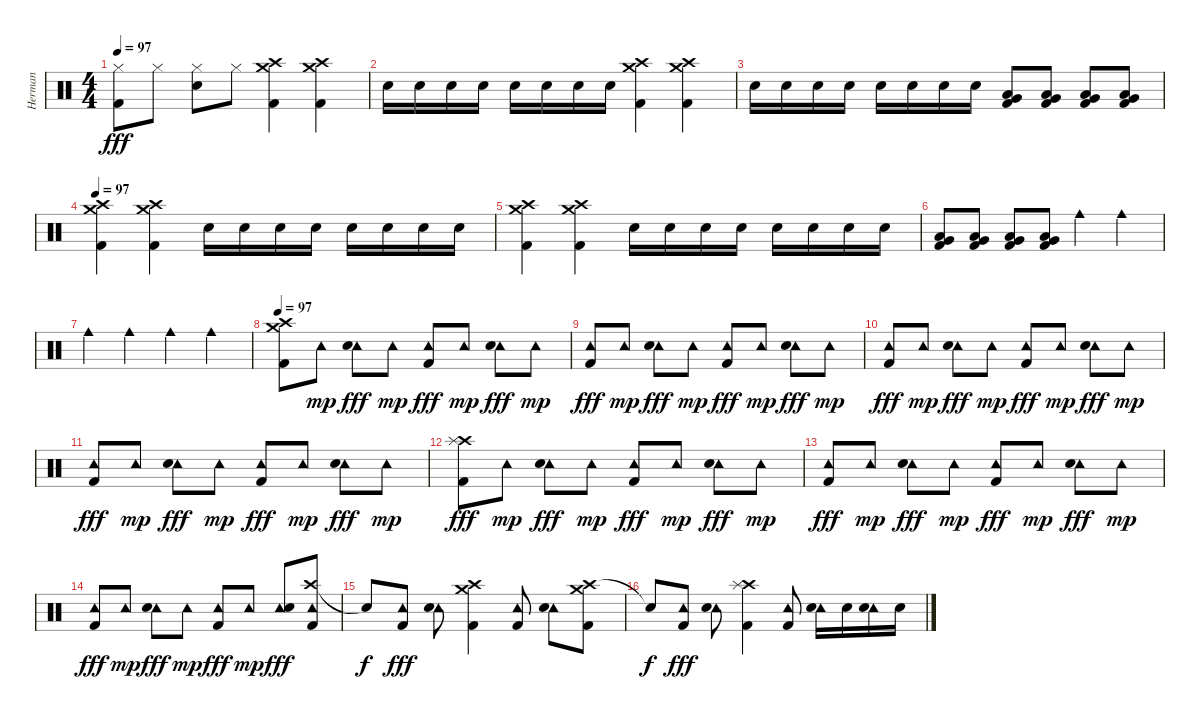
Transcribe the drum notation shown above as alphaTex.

\track ("Herman" "Herman") {instrument percussion}
\staff {score}
\articulation defaults
\ts (4 4)
\tempo 97
\clef neutral
\ks c
("Hi-Hat (closed)" "Kick (hit) 2").8{dy fff} "Hi-Hat (closed)".8 ("Hi-Hat (closed)" "Snare (hit) 2").8 "Hi-Hat (closed)".8 ("Crash high (hit)" "Crash medium (hit)" "Kick (hit) 2").4 ("Crash high (hit)" "Crash medium (hit)" "Kick (hit) 2").4 |
"Snare (hit) 2".16 "Snare (hit) 2".16 "Snare (hit) 2".16 "Snare (hit) 2".16 "Snare (hit) 2".16 "Snare (hit) 2".16 "Snare (hit) 2".16 "Snare (hit) 2".16 ("Crash high (hit)" "Crash medium (hit)" "Kick (hit) 2").4 ("Crash high (hit)" "Crash medium (hit)" "Kick (hit) 2").4 |
"Snare (hit) 2".16 "Snare (hit) 2".16 "Snare (hit) 2".16 "Snare (hit) 2".16 "Snare (hit) 2".16 "Snare (hit) 2".16 "Snare (hit) 2".16 "Snare (hit) 2".16 ("Low Floor Tom (hit)" "Very Low Tom (hit)" "Kick (hit) 2").8 ("Low Floor Tom (hit)" "Very Low Tom (hit)" "Kick (hit) 2").8 ("Low Floor Tom (hit)" "Very Low Tom (hit)" "Kick (hit) 2").8 ("Low Floor Tom (hit)" "Very Low Tom (hit)" "Kick (hit) 2").8 |
\tempo 97
("Crash high (hit)" "Crash medium (hit)" "Kick (hit) 2").4 ("Crash high (hit)" "Crash medium (hit)" "Kick (hit) 2").4 "Snare (hit) 2".16 "Snare (hit) 2".16 "Snare (hit) 2".16 "Snare (hit) 2".16 "Snare (hit) 2".16 "Snare (hit) 2".16 "Snare (hit) 2".16 "Snare (hit) 2".16 |
("Crash high (hit)" "Crash medium (hit)" "Kick (hit) 2").4 ("Crash high (hit)" "Crash medium (hit)" "Kick (hit) 2").4 "Snare (hit) 2".16 "Snare (hit) 2".16 "Snare (hit) 2".16 "Snare (hit) 2".16 "Snare (hit) 2".16 "Snare (hit) 2".16 "Snare (hit) 2".16 "Snare (hit) 2".16 |
("Low Floor Tom (hit)" "Very Low Tom (hit)" "Kick (hit) 2").8 ("Low Floor Tom (hit)" "Very Low Tom (hit)" "Kick (hit) 2").8 ("Low Floor Tom (hit)" "Very Low Tom (hit)" "Kick (hit) 2").8 ("Low Floor Tom (hit)" "Very Low Tom (hit)" "Kick (hit) 2").8 "Cowbell medium (hit)".4 "Cowbell medium (hit)".4 |
"Cowbell medium (hit)".4 "Cowbell medium (hit)".4 "Cowbell medium (hit)".4 "Cowbell medium (hit)".4 |
\tempo 97
("Crash high (hit)" "Crash medium (hit)" "Kick (hit) 2").8 "Tambourine (hit)".8{dy mp} ("Tambourine (hit)" "Snare (hit) 2").8{dy fff} "Tambourine (hit)".8{dy mp} ("Tambourine (hit)" "Kick (hit) 2").8{dy fff} "Tambourine (hit)".8{dy mp} ("Tambourine (hit)" "Snare (hit) 2").8{dy fff} "Tambourine (hit)".8{dy mp} |
("Tambourine (hit)" "Kick (hit) 2").8{dy fff} "Tambourine (hit)".8{dy mp} ("Tambourine (hit)" "Snare (hit) 2").8{dy fff} "Tambourine (hit)".8{dy mp} ("Tambourine (hit)" "Kick (hit) 2").8{dy fff} "Tambourine (hit)".8{dy mp} ("Tambourine (hit)" "Snare (hit) 2").8{dy fff} "Tambourine (hit)".8{dy mp} |
("Tambourine (hit)" "Kick (hit) 2").8{dy fff} "Tambourine (hit)".8{dy mp} ("Tambourine (hit)" "Snare (hit) 2").8{dy fff} "Tambourine (hit)".8{dy mp} ("Tambourine (hit)" "Kick (hit) 2").8{dy fff} "Tambourine (hit)".8{dy mp} ("Tambourine (hit)" "Snare (hit) 2").8{dy fff} "Tambourine (hit)".8{dy mp} |
("Tambourine (hit)" "Kick (hit) 2").8{dy fff} "Tambourine (hit)".8{dy mp} ("Tambourine (hit)" "Snare (hit) 2").8{dy fff} "Tambourine (hit)".8{dy mp} ("Tambourine (hit)" "Kick (hit) 2").8{dy fff} "Tambourine (hit)".8{dy mp} ("Tambourine (hit)" "Snare (hit) 2").8{dy fff} "Tambourine (hit)".8{dy mp} |
("Crash high (hit)" "Splash (hit)" "Kick (hit) 2").8{dy fff} "Tambourine (hit)".8{dy mp} ("Tambourine (hit)" "Snare (hit) 2").8{dy fff} "Tambourine (hit)".8{dy mp} ("Tambourine (hit)" "Kick (hit) 2").8{dy fff} "Tambourine (hit)".8{dy mp} ("Tambourine (hit)" "Snare (hit) 2").8{dy fff} "Tambourine (hit)".8{dy mp} |
("Tambourine (hit)" "Kick (hit) 2").8{dy fff} "Tambourine (hit)".8{dy mp} ("Tambourine (hit)" "Snare (hit) 2").8{dy fff} "Tambourine (hit)".8{dy mp} ("Tambourine (hit)" "Kick (hit) 2").8{dy fff} "Tambourine (hit)".8{dy mp} ("Tambourine (hit)" "Snare (hit) 2").8{dy fff} "Tambourine (hit)".8{dy mp} |
("Tambourine (hit)" "Kick (hit) 2").8{dy fff} "Tambourine (hit)".8{dy mp} ("Tambourine (hit)" "Snare (hit) 2").8{dy fff} "Tambourine (hit)".8{dy mp} ("Tambourine (hit)" "Kick (hit) 2").8{dy fff} "Tambourine (hit)".8{dy mp} ("Tambourine (hit)" "Snare (hit) 2").8{dy fff} ("Crash high (hit)" "Tambourine (hit)" "Kick (hit) 2").8 |
"Snare (hit)"{t}.8{dy f} ("Tambourine (hit)" "Kick (hit) 2").8{dy fff} ("Tambourine (hit)" "Snare (hit) 2").8 ("Crash high (hit)" "Crash medium (hit)" "Kick (hit) 2").4 ("Tambourine (hit)" "Kick (hit) 2").8 ("Tambourine (hit)" "Snare (hit) 2").8 ("Crash high (hit)" "Crash medium (hit)" "Kick (hit) 2").8 |
"Snare (hit)"{t}.8{dy f} ("Tambourine (hit)" "Kick (hit) 2").8{dy fff} ("Tambourine (hit)" "Snare (hit) 2").8 ("Crash high (hit)" "Splash (hit)" "Kick (hit) 2").4 ("Tambourine (hit)" "Kick (hit) 2").8 ("Tambourine (hit)" "Snare (hit) 2").16 "Snare (hit) 2".16 ("Tambourine (hit)" "Snare (hit) 2").16 "Snare (hit) 2".16
